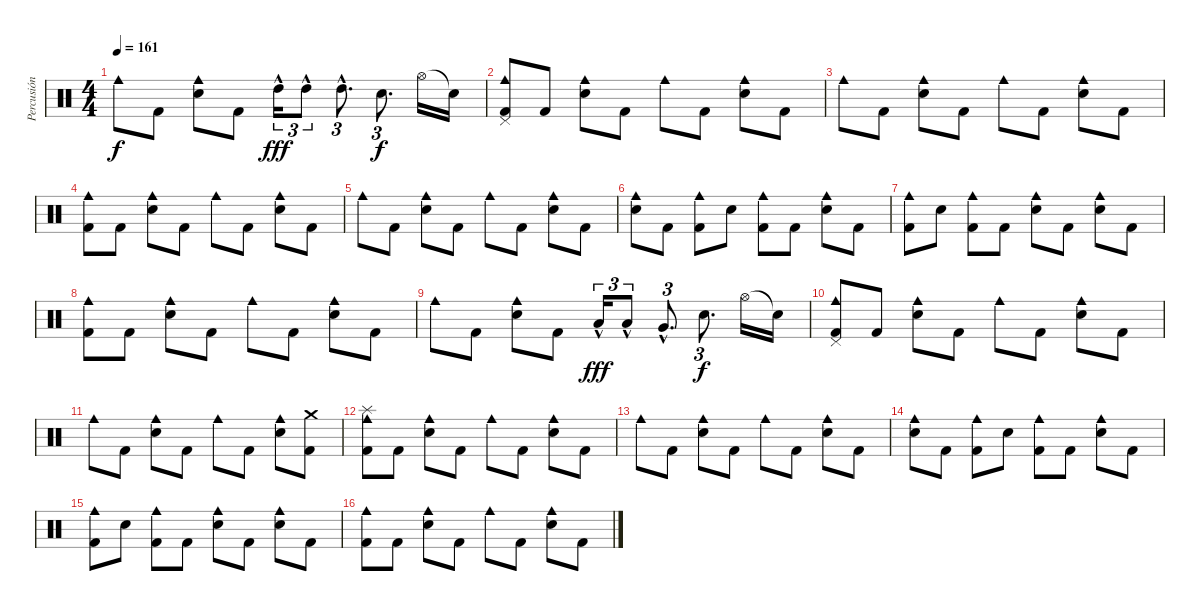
\track ("Percusión" "Percusión") {instrument percussion}
\staff {score}
\articulation defaults
\ts (4 4)
\tempo 161
\clef neutral
\ks c "Cowbell medium (hit)".8{dy f} "Kick (hit) 2".8
("Cowbell medium (hit)" "Snare (hit) 2").8 "Kick (hit) 2".8 "High Tom (hit)"{hac}.16{tu (3 2) dy fff} "High Tom (hit)"{hac}.8{tu (3 2)} "High Tom (hit)"{hac}.8{d tu (3 2)} "Snare (hit) 2".8{d tu (3 2) dy f} "Hi-Hat (open)".16 "Snare (hit)"{t}.16 |
("Pedal Hi-Hat (hit)" "Cowbell medium (hit)" "Kick (hit) 2").8 "Kick (hit) 2".8 ("Cowbell medium (hit)" "Snare (hit) 2").8 "Kick (hit) 2".8 "Cowbell medium (hit)".8 "Kick (hit) 2".8 ("Cowbell medium (hit)" "Snare (hit) 2").8 "Kick (hit) 2".8 |
"Cowbell medium (hit)".8 "Kick (hit) 2".8 ("Cowbell medium (hit)" "Snare (hit) 2").8 "Kick (hit) 2".8 "Cowbell medium (hit)".8 "Kick (hit) 2".8 ("Cowbell medium (hit)" "Snare (hit) 2").8 "Kick (hit) 2".8 |
("Cowbell medium (hit)" "Kick (hit) 2").8 "Kick (hit) 2".8 ("Cowbell medium (hit)" "Snare (hit) 2").8 "Kick (hit) 2".8 "Cowbell medium (hit)".8 "Kick (hit) 2".8 ("Cowbell medium (hit)" "Snare (hit) 2").8 "Kick (hit) 2".8 |
"Cowbell medium (hit)".8 "Kick (hit) 2".8 ("Cowbell medium (hit)" "Snare (hit) 2").8 "Kick (hit) 2".8 "Cowbell medium (hit)".8 "Kick (hit) 2".8 ("Cowbell medium (hit)" "Snare (hit) 2").8 "Kick (hit) 2".8 |
("Cowbell medium (hit)" "Snare (hit) 2").8 "Kick (hit) 2".8 ("Cowbell medium (hit)" "Kick (hit) 2").8 "Snare (hit) 2".8 ("Cowbell medium (hit)" "Kick (hit) 2").8 "Kick (hit) 2".8 ("Cowbell medium (hit)" "Snare (hit) 2").8 "Kick (hit) 2".8 |
("Cowbell medium (hit)" "Kick (hit) 2").8 "Snare (hit) 2".8 ("Cowbell medium (hit)" "Kick (hit) 2").8 "Kick (hit) 2".8 ("Cowbell medium (hit)" "Snare (hit) 2").8 "Kick (hit) 2".8 ("Cowbell medium (hit)" "Snare (hit) 2").8 "Kick (hit) 2".8 |
("Cowbell medium (hit)" "Kick (hit) 2").8 "Kick (hit) 2".8 ("Cowbell medium (hit)" "Snare (hit) 2").8 "Kick (hit) 2".8 "Cowbell medium (hit)".8 "Kick (hit) 2".8 ("Cowbell medium (hit)" "Snare (hit) 2").8 "Kick (hit) 2".8 |
"Cowbell medium (hit)".8 "Kick (hit) 2".8 ("Cowbell medium (hit)" "Snare (hit) 2").8 "Kick (hit) 2".8 "Low Tom (hit)"{hac}.16{tu (3 2) dy fff} "Low Tom (hit)"{hac}.8{tu (3 2)} "Very Low Tom (hit)"{hac}.8{d tu (3 2)} "Snare (hit) 2".8{d tu (3 2) dy f} "Hi-Hat (open)".16 "Snare (hit)"{t}.16 |
("Pedal Hi-Hat (hit)" "Cowbell medium (hit)" "Kick (hit) 2").8 "Kick (hit) 2".8 ("Cowbell medium (hit)" "Snare (hit) 2").8 "Kick (hit) 2".8 "Cowbell medium (hit)".8 "Kick (hit) 2".8 ("Cowbell medium (hit)" "Snare (hit) 2").8 "Kick (hit) 2".8 |
"Cowbell medium (hit)".8 "Kick (hit) 2".8 ("Cowbell medium (hit)" "Snare (hit) 2").8 "Kick (hit) 2".8 "Cowbell medium (hit)".8 "Kick (hit) 2".8 ("Cowbell medium (hit)" "Snare (hit) 2").8 ("Crash medium (hit)" "Kick (hit) 2").8 |
("Splash (hit)" "Cowbell medium (hit)" "Kick (hit) 2").8 "Kick (hit) 2".8 ("Cowbell medium (hit)" "Snare (hit) 2").8 "Kick (hit) 2".8 "Cowbell medium (hit)".8 "Kick (hit) 2".8 ("Cowbell medium (hit)" "Snare (hit) 2").8 "Kick (hit) 2".8 |
"Cowbell medium (hit)".8 "Kick (hit) 2".8 ("Cowbell medium (hit)" "Snare (hit) 2").8 "Kick (hit) 2".8 "Cowbell medium (hit)".8 "Kick (hit) 2".8 ("Cowbell medium (hit)" "Snare (hit) 2").8 "Kick (hit) 2".8 |
("Cowbell medium (hit)" "Snare (hit) 2").8 "Kick (hit) 2".8 ("Cowbell medium (hit)" "Kick (hit) 2").8 "Snare (hit) 2".8 ("Cowbell medium (hit)" "Kick (hit) 2").8 "Kick (hit) 2".8 ("Cowbell medium (hit)" "Snare (hit) 2").8 "Kick (hit) 2".8 |
("Cowbell medium (hit)" "Kick (hit) 2").8 "Snare (hit) 2".8 ("Cowbell medium (hit)" "Kick (hit) 2").8 "Kick (hit) 2".8 ("Cowbell medium (hit)" "Snare (hit) 2").8 "Kick (hit) 2".8 ("Cowbell medium (hit)" "Snare (hit) 2").8 "Kick (hit) 2".8 |
("Cowbell medium (hit)" "Kick (hit) 2").8 "Kick (hit) 2".8 ("Cowbell medium (hit)" "Snare (hit) 2").8 "Kick (hit) 2".8 "Cowbell medium (hit)".8 "Kick (hit) 2".8 ("Cowbell medium (hit)" "Snare (hit) 2").8 "Kick (hit) 2".8
